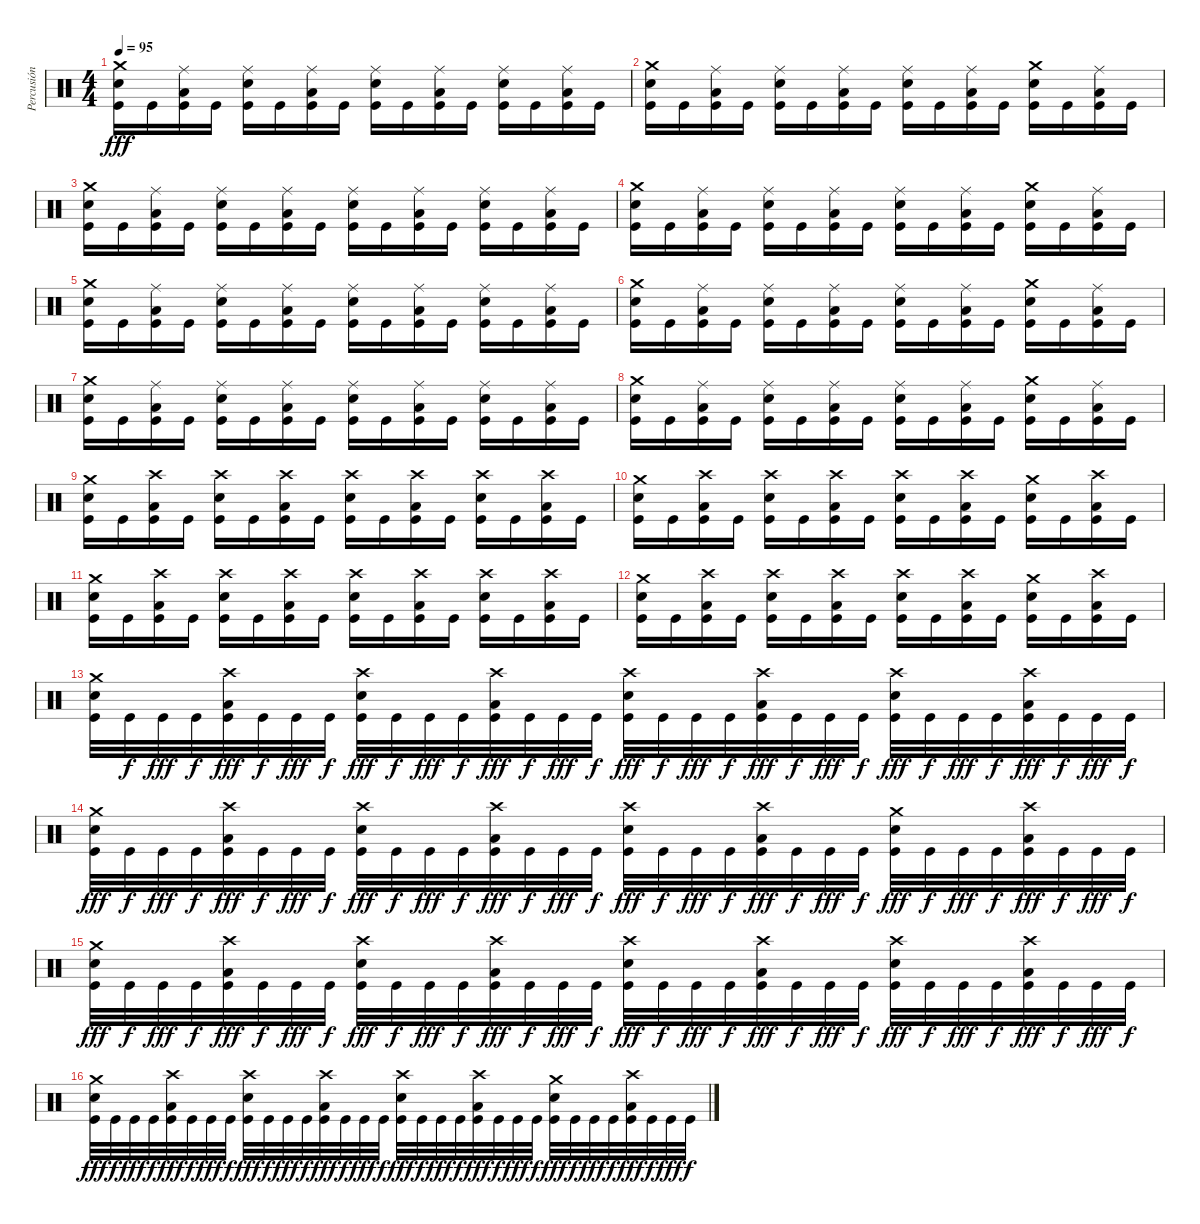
\track ("Percusión" "Percusión") {instrument percussion}
\staff {score}
\articulation defaults
\ts (4 4)
\tempo 95
\clef neutral
\ks c
("Crash medium (hit)" "Snare (hit) 2" "Kick (hit)").16{dy fff} "Kick (hit)".16 ("Ride (middle)" "Low Floor Tom (hit)" "Kick (hit)").16 "Kick (hit)".16 ("Ride (middle)" "Snare (hit) 2" "Kick (hit)").16 "Kick (hit)".16 ("Ride (middle)" "Low Floor Tom (hit)" "Kick (hit)").16 "Kick (hit)".16 ("Ride (middle)" "Snare (hit) 2" "Kick (hit)").16 "Kick (hit)".16 ("Ride (middle)" "Low Floor Tom (hit)" "Kick (hit)").16 "Kick (hit)".16 ("Ride (middle)" "Snare (hit) 2" "Kick (hit)").16 "Kick (hit)".16 ("Ride (middle)" "Low Floor Tom (hit)" "Kick (hit)").16 "Kick (hit)".16 |
("Crash medium (hit)" "Snare (hit) 2" "Kick (hit)").16 "Kick (hit)".16 ("Ride (middle)" "Low Floor Tom (hit)" "Kick (hit)").16 "Kick (hit)".16 ("Ride (middle)" "Snare (hit) 2" "Kick (hit)").16 "Kick (hit)".16 ("Ride (middle)" "Low Floor Tom (hit)" "Kick (hit)").16 "Kick (hit)".16 ("Ride (middle)" "Snare (hit) 2" "Kick (hit)").16 "Kick (hit)".16 ("Ride (middle)" "Low Floor Tom (hit)" "Kick (hit)").16 "Kick (hit)".16 ("Crash medium (hit)" "Snare (hit) 2" "Kick (hit)").16 "Kick (hit)".16 ("Ride (middle)" "Low Floor Tom (hit)" "Kick (hit)").16 "Kick (hit)".16 |
("Crash medium (hit)" "Snare (hit) 2" "Kick (hit)").16 "Kick (hit)".16 ("Ride (middle)" "Low Floor Tom (hit)" "Kick (hit)").16 "Kick (hit)".16 ("Ride (middle)" "Snare (hit) 2" "Kick (hit)").16 "Kick (hit)".16 ("Ride (middle)" "Low Floor Tom (hit)" "Kick (hit)").16 "Kick (hit)".16 ("Ride (middle)" "Snare (hit) 2" "Kick (hit)").16 "Kick (hit)".16 ("Ride (middle)" "Low Floor Tom (hit)" "Kick (hit)").16 "Kick (hit)".16 ("Ride (middle)" "Snare (hit) 2" "Kick (hit)").16 "Kick (hit)".16 ("Ride (middle)" "Low Floor Tom (hit)" "Kick (hit)").16 "Kick (hit)".16 |
("Crash medium (hit)" "Snare (hit) 2" "Kick (hit)").16 "Kick (hit)".16 ("Ride (middle)" "Low Floor Tom (hit)" "Kick (hit)").16 "Kick (hit)".16 ("Ride (middle)" "Snare (hit) 2" "Kick (hit)").16 "Kick (hit)".16 ("Ride (middle)" "Low Floor Tom (hit)" "Kick (hit)").16 "Kick (hit)".16 ("Ride (middle)" "Snare (hit) 2" "Kick (hit)").16 "Kick (hit)".16 ("Ride (middle)" "Low Floor Tom (hit)" "Kick (hit)").16 "Kick (hit)".16 ("Crash medium (hit)" "Snare (hit) 2" "Kick (hit)").16 "Kick (hit)".16 ("Ride (middle)" "Low Floor Tom (hit)" "Kick (hit)").16 "Kick (hit)".16 |
("Crash medium (hit)" "Snare (hit) 2" "Kick (hit)").16 "Kick (hit)".16 ("Ride (middle)" "Low Floor Tom (hit)" "Kick (hit)").16 "Kick (hit)".16 ("Ride (middle)" "Snare (hit) 2" "Kick (hit)").16 "Kick (hit)".16 ("Ride (middle)" "Low Floor Tom (hit)" "Kick (hit)").16 "Kick (hit)".16 ("Ride (middle)" "Snare (hit) 2" "Kick (hit)").16 "Kick (hit)".16 ("Ride (middle)" "Low Floor Tom (hit)" "Kick (hit)").16 "Kick (hit)".16 ("Ride (middle)" "Snare (hit) 2" "Kick (hit)").16 "Kick (hit)".16 ("Ride (middle)" "Low Floor Tom (hit)" "Kick (hit)").16 "Kick (hit)".16 |
("Crash medium (hit)" "Snare (hit) 2" "Kick (hit)").16 "Kick (hit)".16 ("Ride (middle)" "Low Floor Tom (hit)" "Kick (hit)").16 "Kick (hit)".16 ("Ride (middle)" "Snare (hit) 2" "Kick (hit)").16 "Kick (hit)".16 ("Ride (middle)" "Low Floor Tom (hit)" "Kick (hit)").16 "Kick (hit)".16 ("Ride (middle)" "Snare (hit) 2" "Kick (hit)").16 "Kick (hit)".16 ("Ride (middle)" "Low Floor Tom (hit)" "Kick (hit)").16 "Kick (hit)".16 ("Crash medium (hit)" "Snare (hit) 2" "Kick (hit)").16 "Kick (hit)".16 ("Ride (middle)" "Low Floor Tom (hit)" "Kick (hit)").16 "Kick (hit)".16 |
("Crash medium (hit)" "Snare (hit) 2" "Kick (hit)").16 "Kick (hit)".16 ("Ride (middle)" "Low Floor Tom (hit)" "Kick (hit)").16 "Kick (hit)".16 ("Ride (middle)" "Snare (hit) 2" "Kick (hit)").16 "Kick (hit)".16 ("Ride (middle)" "Low Floor Tom (hit)" "Kick (hit)").16 "Kick (hit)".16 ("Ride (middle)" "Snare (hit) 2" "Kick (hit)").16 "Kick (hit)".16 ("Ride (middle)" "Low Floor Tom (hit)" "Kick (hit)").16 "Kick (hit)".16 ("Ride (middle)" "Snare (hit) 2" "Kick (hit)").16 "Kick (hit)".16 ("Ride (middle)" "Low Floor Tom (hit)" "Kick (hit)").16 "Kick (hit)".16 |
("Crash medium (hit)" "Snare (hit) 2" "Kick (hit)").16 "Kick (hit)".16 ("Ride (middle)" "Low Floor Tom (hit)" "Kick (hit)").16 "Kick (hit)".16 ("Ride (middle)" "Snare (hit) 2" "Kick (hit)").16 "Kick (hit)".16 ("Ride (middle)" "Low Floor Tom (hit)" "Kick (hit)").16 "Kick (hit)".16 ("Ride (middle)" "Snare (hit) 2" "Kick (hit)").16 "Kick (hit)".16 ("Ride (middle)" "Low Floor Tom (hit)" "Kick (hit)").16 "Kick (hit)".16 ("Crash medium (hit)" "Snare (hit) 2" "Kick (hit)").16 "Kick (hit)".16 ("Ride (middle)" "Low Floor Tom (hit)" "Kick (hit)").16 "Kick (hit)".16 |
("Crash medium (hit)" "Snare (hit) 2" "Kick (hit)").16 "Kick (hit)".16 ("Crash high (hit)" "Low Floor Tom (hit)" "Kick (hit)").16 "Kick (hit)".16 ("Crash high (hit)" "Snare (hit) 2" "Kick (hit)").16 "Kick (hit)".16 ("Crash high (hit)" "Low Floor Tom (hit)" "Kick (hit)").16 "Kick (hit)".16 ("Crash high (hit)" "Snare (hit) 2" "Kick (hit)").16 "Kick (hit)".16 ("Crash high (hit)" "Low Floor Tom (hit)" "Kick (hit)").16 "Kick (hit)".16 ("Crash high (hit)" "Snare (hit) 2" "Kick (hit)").16 "Kick (hit)".16 ("Crash high (hit)" "Low Floor Tom (hit)" "Kick (hit)").16 "Kick (hit)".16 |
("Crash medium (hit)" "Snare (hit) 2" "Kick (hit)").16 "Kick (hit)".16 ("Crash high (hit)" "Low Floor Tom (hit)" "Kick (hit)").16 "Kick (hit)".16 ("Crash high (hit)" "Snare (hit) 2" "Kick (hit)").16 "Kick (hit)".16 ("Crash high (hit)" "Low Floor Tom (hit)" "Kick (hit)").16 "Kick (hit)".16 ("Crash high (hit)" "Snare (hit) 2" "Kick (hit)").16 "Kick (hit)".16 ("Crash high (hit)" "Low Floor Tom (hit)" "Kick (hit)").16 "Kick (hit)".16 ("Crash medium (hit)" "Snare (hit) 2" "Kick (hit)").16 "Kick (hit)".16 ("Crash high (hit)" "Low Floor Tom (hit)" "Kick (hit)").16 "Kick (hit)".16 |
("Crash medium (hit)" "Snare (hit) 2" "Kick (hit)").16 "Kick (hit)".16 ("Crash high (hit)" "Low Floor Tom (hit)" "Kick (hit)").16 "Kick (hit)".16 ("Crash high (hit)" "Snare (hit) 2" "Kick (hit)").16 "Kick (hit)".16 ("Crash high (hit)" "Low Floor Tom (hit)" "Kick (hit)").16 "Kick (hit)".16 ("Crash high (hit)" "Snare (hit) 2" "Kick (hit)").16 "Kick (hit)".16 ("Crash high (hit)" "Low Floor Tom (hit)" "Kick (hit)").16 "Kick (hit)".16 ("Crash high (hit)" "Snare (hit) 2" "Kick (hit)").16 "Kick (hit)".16 ("Crash high (hit)" "Low Floor Tom (hit)" "Kick (hit)").16 "Kick (hit)".16 |
("Crash medium (hit)" "Snare (hit) 2" "Kick (hit)").16 "Kick (hit)".16 ("Crash high (hit)" "Low Floor Tom (hit)" "Kick (hit)").16 "Kick (hit)".16 ("Crash high (hit)" "Snare (hit) 2" "Kick (hit)").16 "Kick (hit)".16 ("Crash high (hit)" "Low Floor Tom (hit)" "Kick (hit)").16 "Kick (hit)".16 ("Crash high (hit)" "Snare (hit) 2" "Kick (hit)").16 "Kick (hit)".16 ("Crash high (hit)" "Low Floor Tom (hit)" "Kick (hit)").16 "Kick (hit)".16 ("Crash medium (hit)" "Snare (hit) 2" "Kick (hit)").16 "Kick (hit)".16 ("Crash high (hit)" "Low Floor Tom (hit)" "Kick (hit)").16 "Kick (hit)".16 |
("Crash medium (hit)" "Snare (hit) 2" "Kick (hit)").32 "Kick (hit)".32{dy f} "Kick (hit)".32{dy fff} "Kick (hit)".32{dy f} ("Crash high (hit)" "Low Floor Tom (hit)" "Kick (hit)").32{dy fff} "Kick (hit)".32{dy f} "Kick (hit)".32{dy fff} "Kick (hit)".32{dy f} ("Crash high (hit)" "Snare (hit) 2" "Kick (hit)").32{dy fff} "Kick (hit)".32{dy f} "Kick (hit)".32{dy fff} "Kick (hit)".32{dy f} ("Crash high (hit)" "Low Floor Tom (hit)" "Kick (hit)").32{dy fff} "Kick (hit)".32{dy f} "Kick (hit)".32{dy fff} "Kick (hit)".32{dy f} ("Crash high (hit)" "Snare (hit) 2" "Kick (hit)").32{dy fff} "Kick (hit)".32{dy f} "Kick (hit)".32{dy fff} "Kick (hit)".32{dy f} ("Crash high (hit)" "Low Floor Tom (hit)" "Kick (hit)").32{dy fff} "Kick (hit)".32{dy f} "Kick (hit)".32{dy fff} "Kick (hit)".32{dy f} ("Crash high (hit)" "Snare (hit) 2" "Kick (hit)").32{dy fff} "Kick (hit)".32{dy f} "Kick (hit)".32{dy fff} "Kick (hit)".32{dy f} ("Crash high (hit)" "Low Floor Tom (hit)" "Kick (hit)").32{dy fff} "Kick (hit)".32{dy f} "Kick (hit)".32{dy fff} "Kick (hit)".32{dy f} |
("Crash medium (hit)" "Snare (hit) 2" "Kick (hit)").32{dy fff} "Kick (hit)".32{dy f} "Kick (hit)".32{dy fff} "Kick (hit)".32{dy f} ("Crash high (hit)" "Low Floor Tom (hit)" "Kick (hit)").32{dy fff} "Kick (hit)".32{dy f} "Kick (hit)".32{dy fff} "Kick (hit)".32{dy f} ("Crash high (hit)" "Snare (hit) 2" "Kick (hit)").32{dy fff} "Kick (hit)".32{dy f} "Kick (hit)".32{dy fff} "Kick (hit)".32{dy f} ("Crash high (hit)" "Low Floor Tom (hit)" "Kick (hit)").32{dy fff} "Kick (hit)".32{dy f} "Kick (hit)".32{dy fff} "Kick (hit)".32{dy f} ("Crash high (hit)" "Snare (hit) 2" "Kick (hit)").32{dy fff} "Kick (hit)".32{dy f} "Kick (hit)".32{dy fff} "Kick (hit)".32{dy f} ("Crash high (hit)" "Low Floor Tom (hit)" "Kick (hit)").32{dy fff} "Kick (hit)".32{dy f} "Kick (hit)".32{dy fff} "Kick (hit)".32{dy f} ("Crash medium (hit)" "Snare (hit) 2" "Kick (hit)").32{dy fff} "Kick (hit)".32{dy f} "Kick (hit)".32{dy fff} "Kick (hit)".32{dy f} ("Crash high (hit)" "Low Floor Tom (hit)" "Kick (hit)").32{dy fff} "Kick (hit)".32{dy f} "Kick (hit)".32{dy fff} "Kick (hit)".32{dy f} |
("Crash medium (hit)" "Snare (hit) 2" "Kick (hit)").32{dy fff} "Kick (hit)".32{dy f} "Kick (hit)".32{dy fff} "Kick (hit)".32{dy f} ("Crash high (hit)" "Low Floor Tom (hit)" "Kick (hit)").32{dy fff} "Kick (hit)".32{dy f} "Kick (hit)".32{dy fff} "Kick (hit)".32{dy f} ("Crash high (hit)" "Snare (hit) 2" "Kick (hit)").32{dy fff} "Kick (hit)".32{dy f} "Kick (hit)".32{dy fff} "Kick (hit)".32{dy f} ("Crash high (hit)" "Low Floor Tom (hit)" "Kick (hit)").32{dy fff} "Kick (hit)".32{dy f} "Kick (hit)".32{dy fff} "Kick (hit)".32{dy f} ("Crash high (hit)" "Snare (hit) 2" "Kick (hit)").32{dy fff} "Kick (hit)".32{dy f} "Kick (hit)".32{dy fff} "Kick (hit)".32{dy f} ("Crash high (hit)" "Low Floor Tom (hit)" "Kick (hit)").32{dy fff} "Kick (hit)".32{dy f} "Kick (hit)".32{dy fff} "Kick (hit)".32{dy f} ("Crash high (hit)" "Snare (hit) 2" "Kick (hit)").32{dy fff} "Kick (hit)".32{dy f} "Kick (hit)".32{dy fff} "Kick (hit)".32{dy f} ("Crash high (hit)" "Low Floor Tom (hit)" "Kick (hit)").32{dy fff} "Kick (hit)".32{dy f} "Kick (hit)".32{dy fff} "Kick (hit)".32{dy f} |
("Crash medium (hit)" "Snare (hit) 2" "Kick (hit)").32{dy fff} "Kick (hit)".32{dy f} "Kick (hit)".32{dy fff} "Kick (hit)".32{dy f} ("Crash high (hit)" "Low Floor Tom (hit)" "Kick (hit)").32{dy fff} "Kick (hit)".32{dy f} "Kick (hit)".32{dy fff} "Kick (hit)".32{dy f} ("Crash high (hit)" "Snare (hit) 2" "Kick (hit)").32{dy fff} "Kick (hit)".32{dy f} "Kick (hit)".32{dy fff} "Kick (hit)".32{dy f} ("Crash high (hit)" "Low Floor Tom (hit)" "Kick (hit)").32{dy fff} "Kick (hit)".32{dy f} "Kick (hit)".32{dy fff} "Kick (hit)".32{dy f} ("Crash high (hit)" "Snare (hit) 2" "Kick (hit)").32{dy fff} "Kick (hit)".32{dy f} "Kick (hit)".32{dy fff} "Kick (hit)".32{dy f} ("Crash high (hit)" "Low Floor Tom (hit)" "Kick (hit)").32{dy fff} "Kick (hit)".32{dy f} "Kick (hit)".32{dy fff} "Kick (hit)".32{dy f} ("Crash medium (hit)" "Snare (hit) 2" "Kick (hit)").32{dy fff} "Kick (hit)".32{dy f} "Kick (hit)".32{dy fff} "Kick (hit)".32{dy f} ("Crash high (hit)" "Low Floor Tom (hit)" "Kick (hit)").32{dy fff} "Kick (hit)".32{dy f} "Kick (hit)".32{dy fff} "Kick (hit)".32{dy f}
